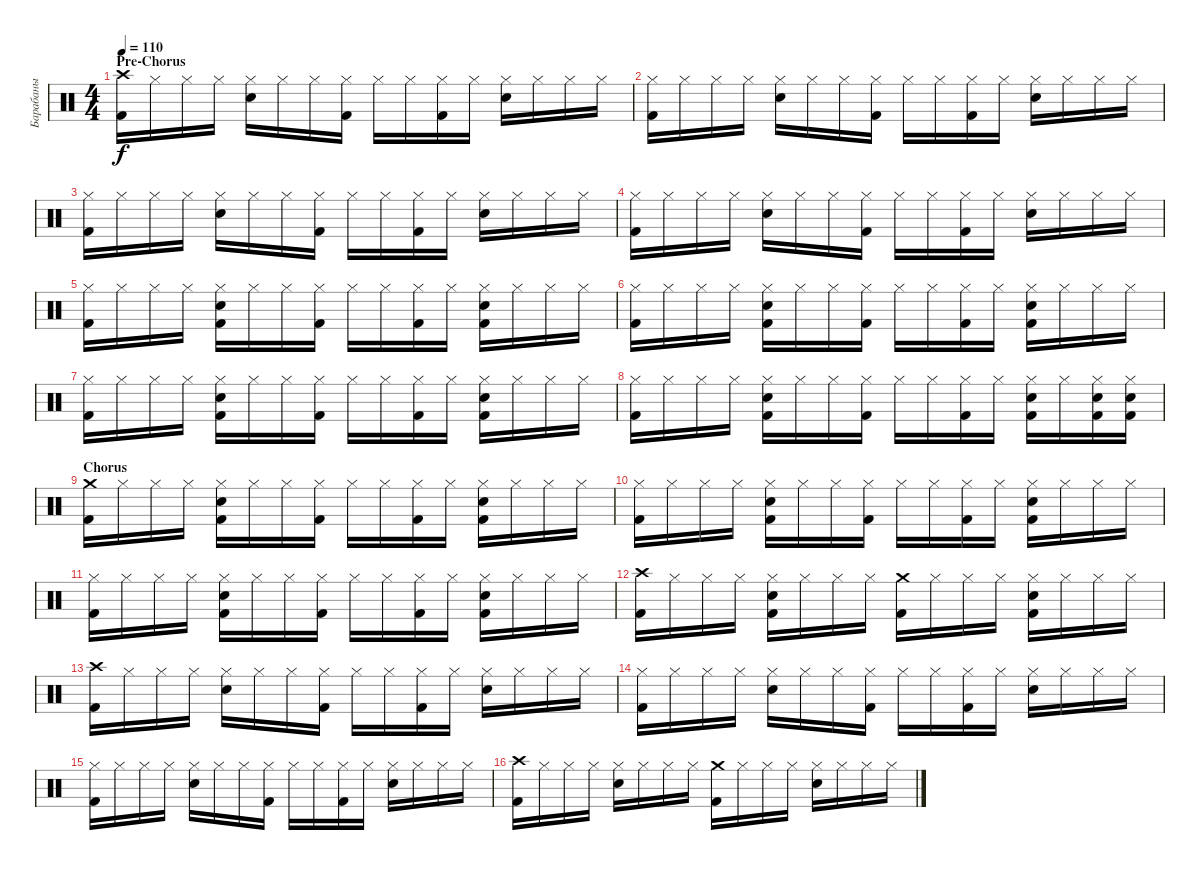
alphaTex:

\track ("Барабаны" "Барабаны") {instrument percussion}
\staff {score}
\articulation defaults
\ts (4 4)
\section ("" "Pre-Chorus")
\tempo 110
\clef neutral
\ks c
("Crash high (hit)" "Kick (hit) 2").16{dy f} "Hi-Hat (closed)".16 "Hi-Hat (closed)".16 "Hi-Hat (closed)".16 ("Hi-Hat (closed)" "Snare (hit) 2").16 "Hi-Hat (closed)".16 "Hi-Hat (closed)".16 ("Hi-Hat (closed)" "Kick (hit) 2").16 "Hi-Hat (closed)".16 "Hi-Hat (closed)".16 ("Hi-Hat (closed)" "Kick (hit) 2").16 "Hi-Hat (closed)".16 ("Hi-Hat (closed)" "Snare (hit) 2").16 "Hi-Hat (closed)".16 "Hi-Hat (closed)".16 "Hi-Hat (closed)".16 |
("Hi-Hat (closed)" "Kick (hit) 2").16 "Hi-Hat (closed)".16 "Hi-Hat (closed)".16 "Hi-Hat (closed)".16 ("Hi-Hat (closed)" "Snare (hit) 2").16 "Hi-Hat (closed)".16 "Hi-Hat (closed)".16 ("Hi-Hat (closed)" "Kick (hit) 2").16 "Hi-Hat (closed)".16 "Hi-Hat (closed)".16 ("Hi-Hat (closed)" "Kick (hit) 2").16 "Hi-Hat (closed)".16 ("Hi-Hat (closed)" "Snare (hit) 2").16 "Hi-Hat (closed)".16 "Hi-Hat (closed)".16 "Hi-Hat (closed)".16 |
("Hi-Hat (closed)" "Kick (hit) 2").16 "Hi-Hat (closed)".16 "Hi-Hat (closed)".16 "Hi-Hat (closed)".16 ("Hi-Hat (closed)" "Snare (hit) 2").16 "Hi-Hat (closed)".16 "Hi-Hat (closed)".16 ("Hi-Hat (closed)" "Kick (hit) 2").16 "Hi-Hat (closed)".16 "Hi-Hat (closed)".16 ("Hi-Hat (closed)" "Kick (hit) 2").16 "Hi-Hat (closed)".16 ("Hi-Hat (closed)" "Snare (hit) 2").16 "Hi-Hat (closed)".16 "Hi-Hat (closed)".16 "Hi-Hat (closed)".16 |
("Hi-Hat (closed)" "Kick (hit) 2").16 "Hi-Hat (closed)".16 "Hi-Hat (closed)".16 "Hi-Hat (closed)".16 ("Hi-Hat (closed)" "Snare (hit) 2").16 "Hi-Hat (closed)".16 "Hi-Hat (closed)".16 ("Hi-Hat (closed)" "Kick (hit) 2").16 "Hi-Hat (closed)".16 "Hi-Hat (closed)".16 ("Hi-Hat (closed)" "Kick (hit) 2").16 "Hi-Hat (closed)".16 ("Hi-Hat (closed)" "Snare (hit) 2").16 "Hi-Hat (closed)".16 "Hi-Hat (closed)".16 "Hi-Hat (closed)".16 |
("Hi-Hat (closed)" "Kick (hit) 2").16 "Hi-Hat (closed)".16 "Hi-Hat (closed)".16 "Hi-Hat (closed)".16 ("Hi-Hat (closed)" "Snare (hit) 2" "Kick (hit) 2").16 "Hi-Hat (closed)".16 "Hi-Hat (closed)".16 ("Hi-Hat (closed)" "Kick (hit) 2").16 "Hi-Hat (closed)".16 "Hi-Hat (closed)".16 ("Hi-Hat (closed)" "Kick (hit) 2").16 "Hi-Hat (closed)".16 ("Hi-Hat (closed)" "Snare (hit) 2" "Kick (hit) 2").16 "Hi-Hat (closed)".16 "Hi-Hat (closed)".16 "Hi-Hat (closed)".16 |
("Hi-Hat (closed)" "Kick (hit) 2").16 "Hi-Hat (closed)".16 "Hi-Hat (closed)".16 "Hi-Hat (closed)".16 ("Hi-Hat (closed)" "Snare (hit) 2" "Kick (hit) 2").16 "Hi-Hat (closed)".16 "Hi-Hat (closed)".16 ("Hi-Hat (closed)" "Kick (hit) 2").16 "Hi-Hat (closed)".16 "Hi-Hat (closed)".16 ("Hi-Hat (closed)" "Kick (hit) 2").16 "Hi-Hat (closed)".16 ("Hi-Hat (closed)" "Snare (hit) 2" "Kick (hit) 2").16 "Hi-Hat (closed)".16 "Hi-Hat (closed)".16 "Hi-Hat (closed)".16 |
("Hi-Hat (closed)" "Kick (hit) 2").16 "Hi-Hat (closed)".16 "Hi-Hat (closed)".16 "Hi-Hat (closed)".16 ("Hi-Hat (closed)" "Snare (hit) 2" "Kick (hit) 2").16 "Hi-Hat (closed)".16 "Hi-Hat (closed)".16 ("Hi-Hat (closed)" "Kick (hit) 2").16 "Hi-Hat (closed)".16 "Hi-Hat (closed)".16 ("Hi-Hat (closed)" "Kick (hit) 2").16 "Hi-Hat (closed)".16 ("Hi-Hat (closed)" "Snare (hit) 2" "Kick (hit) 2").16 "Hi-Hat (closed)".16 "Hi-Hat (closed)".16 "Hi-Hat (closed)".16 |
("Hi-Hat (closed)" "Kick (hit) 2").16 "Hi-Hat (closed)".16 "Hi-Hat (closed)".16 "Hi-Hat (closed)".16 ("Hi-Hat (closed)" "Snare (hit) 2" "Kick (hit) 2").16 "Hi-Hat (closed)".16 "Hi-Hat (closed)".16 ("Hi-Hat (closed)" "Kick (hit) 2").16 "Hi-Hat (closed)".16 "Hi-Hat (closed)".16 ("Hi-Hat (closed)" "Kick (hit) 2").16 "Hi-Hat (closed)".16 ("Hi-Hat (closed)" "Snare (hit) 2" "Kick (hit) 2").16 "Hi-Hat (closed)".16 ("Hi-Hat (closed)" "Snare (hit) 2" "Kick (hit) 2").16 ("Hi-Hat (closed)" "Snare (hit) 2" "Kick (hit) 2").16 |
\section ("" "Chorus")
("Crash medium (hit)" "Kick (hit) 2").16 "Hi-Hat (closed)".16 "Hi-Hat (closed)".16 "Hi-Hat (closed)".16 ("Hi-Hat (closed)" "Snare (hit) 2" "Kick (hit) 2").16 "Hi-Hat (closed)".16 "Hi-Hat (closed)".16 ("Hi-Hat (closed)" "Kick (hit) 2").16 "Hi-Hat (closed)".16 "Hi-Hat (closed)".16 ("Hi-Hat (closed)" "Kick (hit) 2").16 "Hi-Hat (closed)".16 ("Hi-Hat (closed)" "Snare (hit) 2" "Kick (hit) 2").16 "Hi-Hat (closed)".16 "Hi-Hat (closed)".16 "Hi-Hat (closed)".16 |
("Hi-Hat (closed)" "Kick (hit) 2").16 "Hi-Hat (closed)".16 "Hi-Hat (closed)".16 "Hi-Hat (closed)".16 ("Hi-Hat (closed)" "Snare (hit) 2" "Kick (hit) 2").16 "Hi-Hat (closed)".16 "Hi-Hat (closed)".16 ("Hi-Hat (closed)" "Kick (hit) 2").16 "Hi-Hat (closed)".16 "Hi-Hat (closed)".16 ("Hi-Hat (closed)" "Kick (hit) 2").16 "Hi-Hat (closed)".16 ("Hi-Hat (closed)" "Snare (hit) 2" "Kick (hit) 2").16 "Hi-Hat (closed)".16 "Hi-Hat (closed)".16 "Hi-Hat (closed)".16 |
("Hi-Hat (closed)" "Kick (hit) 2").16 "Hi-Hat (closed)".16 "Hi-Hat (closed)".16 "Hi-Hat (closed)".16 ("Hi-Hat (closed)" "Snare (hit) 2" "Kick (hit) 2").16 "Hi-Hat (closed)".16 "Hi-Hat (closed)".16 ("Hi-Hat (closed)" "Kick (hit) 2").16 "Hi-Hat (closed)".16 "Hi-Hat (closed)".16 ("Hi-Hat (closed)" "Kick (hit) 2").16 "Hi-Hat (closed)".16 ("Hi-Hat (closed)" "Snare (hit) 2" "Kick (hit) 2").16 "Hi-Hat (closed)".16 "Hi-Hat (closed)".16 "Hi-Hat (closed)".16 |
("Crash high (hit)" "Kick (hit) 2").16 "Hi-Hat (closed)".16 "Hi-Hat (closed)".16 "Hi-Hat (closed)".16 ("Hi-Hat (closed)" "Snare (hit) 2" "Kick (hit) 2").16 "Hi-Hat (closed)".16 "Hi-Hat (closed)".16 "Hi-Hat (closed)".16 ("Crash medium (hit)" "Kick (hit) 2").16 "Hi-Hat (closed)".16 "Hi-Hat (closed)".16 "Hi-Hat (closed)".16 ("Hi-Hat (closed)" "Snare (hit) 2" "Kick (hit) 2").16 "Hi-Hat (closed)".16 "Hi-Hat (closed)".16 "Hi-Hat (closed)".16 |
("Crash high (hit)" "Kick (hit) 2").16 "Hi-Hat (closed)".16 "Hi-Hat (closed)".16 "Hi-Hat (closed)".16 ("Hi-Hat (closed)" "Snare (hit) 2").16 "Hi-Hat (closed)".16 "Hi-Hat (closed)".16 ("Hi-Hat (closed)" "Kick (hit) 2").16 "Hi-Hat (closed)".16 "Hi-Hat (closed)".16 ("Hi-Hat (closed)" "Kick (hit) 2").16 "Hi-Hat (closed)".16 ("Hi-Hat (closed)" "Snare (hit) 2").16 "Hi-Hat (closed)".16 "Hi-Hat (closed)".16 "Hi-Hat (closed)".16 |
("Hi-Hat (closed)" "Kick (hit) 2").16 "Hi-Hat (closed)".16 "Hi-Hat (closed)".16 "Hi-Hat (closed)".16 ("Hi-Hat (closed)" "Snare (hit) 2").16 "Hi-Hat (closed)".16 "Hi-Hat (closed)".16 ("Hi-Hat (closed)" "Kick (hit) 2").16 "Hi-Hat (closed)".16 "Hi-Hat (closed)".16 ("Hi-Hat (closed)" "Kick (hit) 2").16 "Hi-Hat (closed)".16 ("Hi-Hat (closed)" "Snare (hit) 2").16 "Hi-Hat (closed)".16 "Hi-Hat (closed)".16 "Hi-Hat (closed)".16 |
("Hi-Hat (closed)" "Kick (hit) 2").16 "Hi-Hat (closed)".16 "Hi-Hat (closed)".16 "Hi-Hat (closed)".16 ("Hi-Hat (closed)" "Snare (hit) 2").16 "Hi-Hat (closed)".16 "Hi-Hat (closed)".16 ("Hi-Hat (closed)" "Kick (hit) 2").16 "Hi-Hat (closed)".16 "Hi-Hat (closed)".16 ("Hi-Hat (closed)" "Kick (hit) 2").16 "Hi-Hat (closed)".16 ("Hi-Hat (closed)" "Snare (hit) 2").16 "Hi-Hat (closed)".16 "Hi-Hat (closed)".16 "Hi-Hat (closed)".16 |
("Crash high (hit)" "Kick (hit) 2").16 "Hi-Hat (closed)".16 "Hi-Hat (closed)".16 "Hi-Hat (closed)".16 ("Hi-Hat (closed)" "Snare (hit) 2").16 "Hi-Hat (closed)".16 "Hi-Hat (closed)".16 "Hi-Hat (closed)".16 ("Crash medium (hit)" "Kick (hit) 2").16 "Hi-Hat (closed)".16 "Hi-Hat (closed)".16 "Hi-Hat (closed)".16 ("Hi-Hat (closed)" "Snare (hit) 2").16 "Hi-Hat (closed)".16 "Hi-Hat (closed)".16 "Hi-Hat (closed)".16
